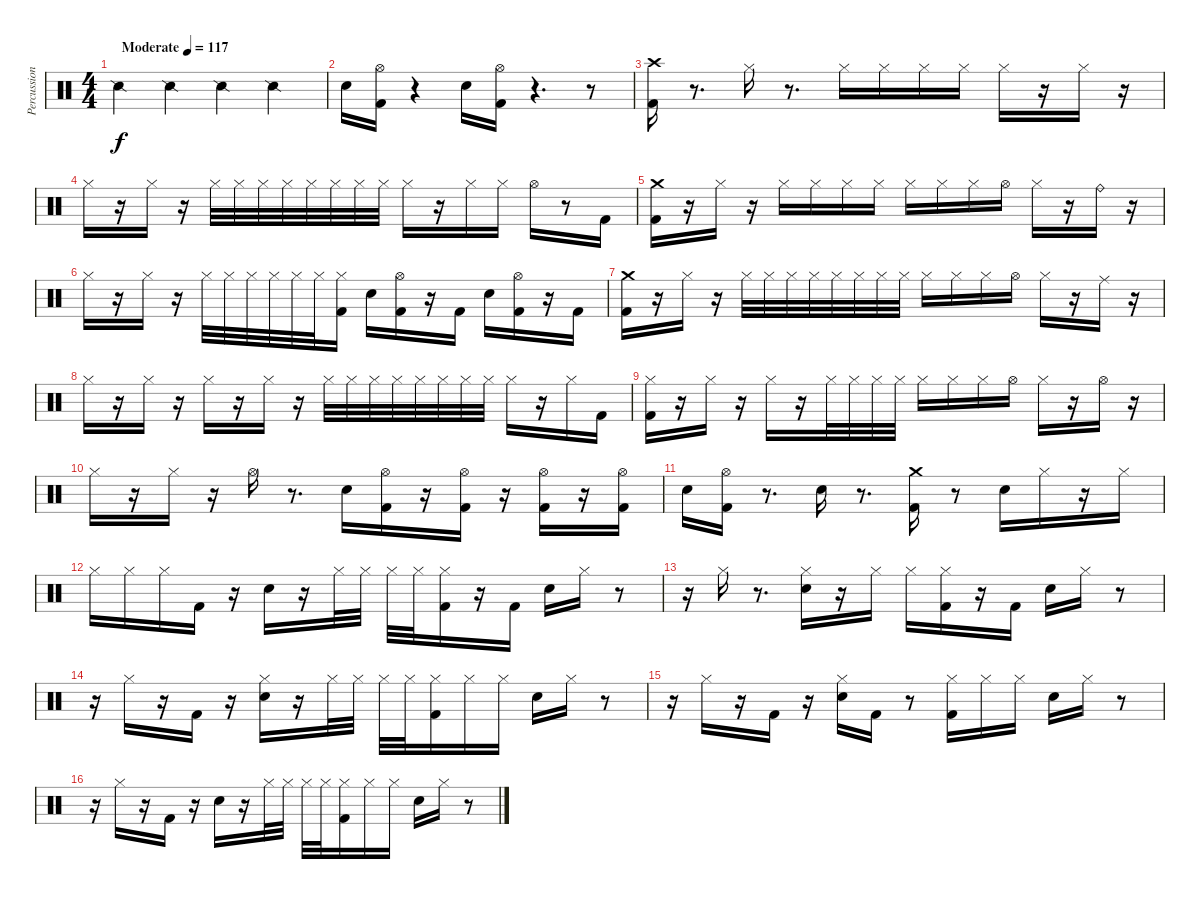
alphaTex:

\track ("Percussion" "Percussion") {instrument percussion}
\staff {score}
\articulation defaults
\ts (4 4)
\tempo (117 "Moderate")
\clef neutral
\ks c "Snare (side stick) 2".4{dy f} "Snare (side stick) 2".4 "Snare (side stick) 2".4 "Snare (side stick) 2".4
|
"Snare (hit) 2".16 ("Kick (hit) 2" "Hi-Hat (open)").16 r.4 "Snare (hit) 2".16 ("Kick (hit) 2" "Hi-Hat (open)").16 r.4{d} r.8 |
("Kick (hit) 2" "Crash high (hit)").16 r.8{d} "Hi-Hat (closed)".16 r.8{d} "Hi-Hat (closed)".16 "Hi-Hat (closed)".16 "Hi-Hat (closed)".16 "Hi-Hat (closed)".16 "Hi-Hat (closed)".16 r.16 "Hi-Hat (closed)".16 r.16 |
"Hi-Hat (closed)".16 r.16 "Hi-Hat (closed)".16 r.16 "Hi-Hat (closed)".32 "Hi-Hat (closed)".32 "Hi-Hat (closed)".32 "Hi-Hat (closed)".32 "Hi-Hat (closed)".32 "Hi-Hat (closed)".32 "Hi-Hat (closed)".32 "Hi-Hat (closed)".32 "Hi-Hat (closed)".16 r.16 "Hi-Hat (closed)".16 "Hi-Hat (closed)".16 "Hi-Hat (open)".16 r.8 "Kick (hit) 2".16 |
("Kick (hit) 2" "Crash medium (hit)").16 r.16 "Hi-Hat (closed)".16 r.16 "Hi-Hat (closed)".16 "Hi-Hat (closed)".16 "Hi-Hat (closed)".16 "Hi-Hat (closed)".16 "Hi-Hat (closed)".16 "Hi-Hat (closed)".16 "Hi-Hat (closed)".16 "Hi-Hat (open)".16 "Hi-Hat (closed)".16 r.16 "Ride (bell)".16 r.16 |
"Hi-Hat (closed)".16 r.16 "Hi-Hat (closed)".16 r.16 "Hi-Hat (closed)".32 "Hi-Hat (closed)".32 "Hi-Hat (closed)".32 "Hi-Hat (closed)".32 "Hi-Hat (closed)".32 "Hi-Hat (closed)".32 ("Hi-Hat (closed)" "Kick (hit) 2").16 "Snare (hit) 2".16 ("Kick (hit) 2" "Hi-Hat (open)").16 r.16 "Kick (hit) 2".16 "Snare (hit) 2".16 ("Kick (hit) 2" "Hi-Hat (open)").16 r.16 "Kick (hit) 2".16 |
("Kick (hit) 2" "Crash medium (hit)").16 r.16 "Hi-Hat (closed)".16 r.16 "Hi-Hat (closed)".32 "Hi-Hat (closed)".32 "Hi-Hat (closed)".32 "Hi-Hat (closed)".32 "Hi-Hat (closed)".32 "Hi-Hat (closed)".32 "Hi-Hat (closed)".32 "Hi-Hat (closed)".32 "Hi-Hat (closed)".16 "Hi-Hat (closed)".16 "Hi-Hat (closed)".16 "Hi-Hat (open)".16 "Hi-Hat (closed)".16 r.16 "Ride (middle)".16 r.16 |
"Hi-Hat (closed)".16 r.16 "Hi-Hat (closed)".16 r.16 "Hi-Hat (closed)".16 r.16 "Hi-Hat (closed)".16 r.16 "Hi-Hat (closed)".32 "Hi-Hat (closed)".32 "Hi-Hat (closed)".32 "Hi-Hat (closed)".32 "Hi-Hat (closed)".32 "Hi-Hat (closed)".32 "Hi-Hat (closed)".32 "Hi-Hat (closed)".32 "Hi-Hat (closed)".16 r.16 "Hi-Hat (closed)".16 "Kick (hit) 2".16 |
("Kick (hit) 2" "Hi-Hat (closed)").16 r.16 "Hi-Hat (closed)".16 r.16 "Hi-Hat (closed)".16 r.16 "Hi-Hat (closed)".32 "Hi-Hat (closed)".32 "Hi-Hat (closed)".32 "Hi-Hat (closed)".32 "Hi-Hat (closed)".16 "Hi-Hat (closed)".16 "Hi-Hat (closed)".16 "Hi-Hat (open)".16 "Hi-Hat (closed)".16 r.16 "Hi-Hat (open)".16 r.16 |
"Hi-Hat (closed)".16 r.16 "Hi-Hat (closed)".16 r.16 "Hi-Hat (open)".16 r.8{d} "Snare (hit) 2".16 ("Kick (hit) 2" "Hi-Hat (open)").16 r.16 ("Kick (hit) 2" "Hi-Hat (open)").16 r.16 ("Kick (hit) 2" "Hi-Hat (open)").16 r.16 ("Kick (hit) 2" "Hi-Hat (open)").16 |
"Snare (hit) 2".16 ("Kick (hit) 2" "Hi-Hat (open)").16 r.8{d} "Snare (hit) 2".16 r.8{d} ("Kick (hit) 2" "Crash medium (hit)").16 r.8 "Snare (hit) 2".16 "Hi-Hat (closed)".16 r.16 "Hi-Hat (closed)".16 |
"Hi-Hat (closed)".16 "Hi-Hat (closed)".16 "Hi-Hat (closed)".16 "Kick (hit) 2".16 r.16 "Snare (hit) 2".16 r.16 "Hi-Hat (closed)".32 "Hi-Hat (closed)".32 "Hi-Hat (closed)".32 "Hi-Hat (closed)".32 ("Hi-Hat (closed)" "Kick (hit) 2").16 r.16 "Kick (hit) 2".16 "Snare (hit) 2".16 "Hi-Hat (closed)".16 r.8 |
r.16 "Hi-Hat (closed)".16 r.8{d} ("Hi-Hat (closed)" "Snare (hit) 2").16 r.16 "Hi-Hat (closed)".16 "Hi-Hat (closed)".16 ("Hi-Hat (closed)" "Kick (hit) 2").16 r.16 "Kick (hit) 2".16 "Snare (hit) 2".16 "Hi-Hat (closed)".16 r.8 |
r.16 "Hi-Hat (closed)".16 r.16 "Kick (hit) 2".16 r.16 ("Hi-Hat (closed)" "Snare (hit) 2").16 r.16 "Hi-Hat (closed)".32 "Hi-Hat (closed)".32 "Hi-Hat (closed)".32 "Hi-Hat (closed)".32 ("Kick (hit) 2" "Hi-Hat (closed)").16 "Hi-Hat (closed)".16 "Hi-Hat (closed)".16 "Snare (hit) 2".16 "Hi-Hat (closed)".16 r.8 |
r.16 "Hi-Hat (closed)".16 r.16 "Kick (hit) 2".16 r.16 ("Hi-Hat (closed)" "Snare (hit) 2").16 "Kick (hit) 2".16 r.8 ("Kick (hit) 2" "Hi-Hat (closed)").16 "Hi-Hat (closed)".16 "Hi-Hat (closed)".16 "Snare (hit) 2".16 "Hi-Hat (closed)".16 r.8 |
r.16 "Hi-Hat (closed)".16 r.16 "Kick (hit) 2".16 r.16 "Snare (hit) 2".16 r.16 "Hi-Hat (closed)".32 "Hi-Hat (closed)".32 "Hi-Hat (closed)".32 "Hi-Hat (closed)".32 ("Hi-Hat (closed)" "Kick (hit) 2").16 "Hi-Hat (closed)".16 "Hi-Hat (closed)".16 "Snare (hit) 2".16 "Hi-Hat (closed)".16 r.8
